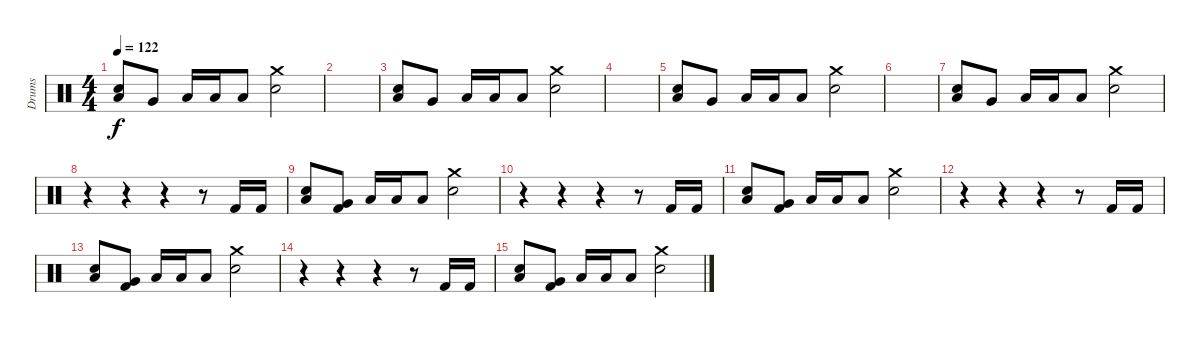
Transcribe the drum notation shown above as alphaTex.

\track ("Drums" "Drums") {instrument percussion}
\staff {score}
\articulation defaults
\ts (4 4)
\section ("" "")
\tempo 122
\clef neutral
\ks c
("Low Tom (hit)" "Electric Snare (hit)").8{dy f} "Very Low Tom (hit)".8 "Low Tom (hit)".16 "Low Tom (hit)".16 "Low Tom (hit)".8 ("Crash medium (hit)" "Electric Snare (hit)").2 |
|
("Low Tom (hit)" "Electric Snare (hit)").8 "Very Low Tom (hit)".8 "Low Tom (hit)".16 "Low Tom (hit)".16 "Low Tom (hit)".8 ("Crash medium (hit)" "Electric Snare (hit)").2 |
|
("Low Tom (hit)" "Electric Snare (hit)").8 "Very Low Tom (hit)".8 "Low Tom (hit)".16 "Low Tom (hit)".16 "Low Tom (hit)".8 ("Crash medium (hit)" "Electric Snare (hit)").2 |
|
("Low Tom (hit)" "Electric Snare (hit)").8 "Very Low Tom (hit)".8 "Low Tom (hit)".16 "Low Tom (hit)".16 "Low Tom (hit)".8 ("Crash medium (hit)" "Electric Snare (hit)").2 |
r.4 r.4 r.4 r.8 "Kick (hit) 2".16 "Kick (hit) 2".16 |
("Low Tom (hit)" "Electric Snare (hit)").8 ("Very Low Tom (hit)" "Kick (hit) 2").8 "Low Tom (hit)".16 "Low Tom (hit)".16 "Low Tom (hit)".8 ("Crash medium (hit)" "Electric Snare (hit)").2 |
r.4 r.4 r.4 r.8 "Kick (hit) 2".16 "Kick (hit) 2".16 |
("Low Tom (hit)" "Electric Snare (hit)").8 ("Very Low Tom (hit)" "Kick (hit) 2").8 "Low Tom (hit)".16 "Low Tom (hit)".16 "Low Tom (hit)".8 ("Crash medium (hit)" "Electric Snare (hit)").2 |
r.4 r.4 r.4 r.8 "Kick (hit) 2".16 "Kick (hit) 2".16 |
("Low Tom (hit)" "Electric Snare (hit)").8 ("Very Low Tom (hit)" "Kick (hit) 2").8 "Low Tom (hit)".16 "Low Tom (hit)".16 "Low Tom (hit)".8 ("Crash medium (hit)" "Electric Snare (hit)").2 |
r.4 r.4 r.4 r.8 "Kick (hit) 2".16 "Kick (hit) 2".16 |
("Low Tom (hit)" "Electric Snare (hit)").8 ("Very Low Tom (hit)" "Kick (hit) 2").8 "Low Tom (hit)".16 "Low Tom (hit)".16 "Low Tom (hit)".8 ("Crash medium (hit)" "Electric Snare (hit)").2
